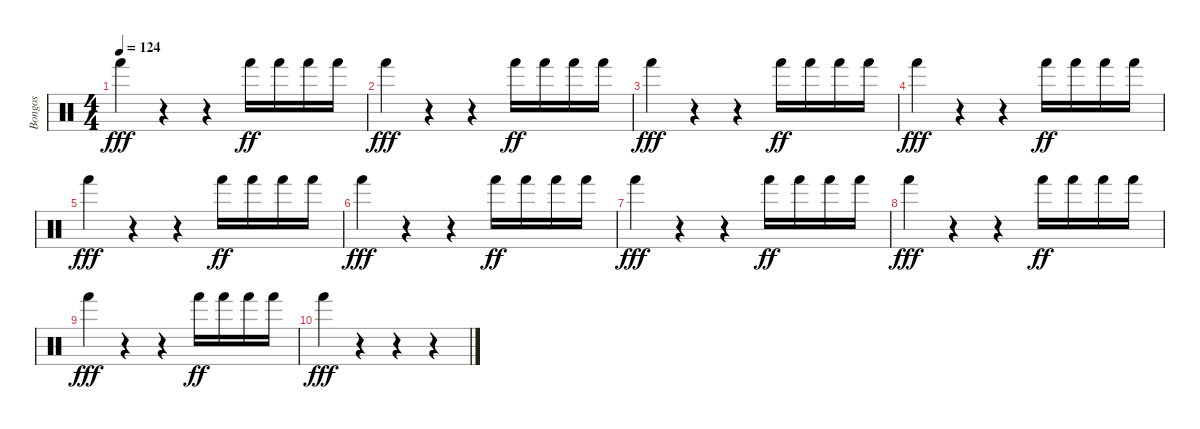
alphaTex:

\track ("Bongos" "Bongos") {instrument percussion}
\staff {score}
\articulation defaults
\ts (4 4)
\tempo 124
\clef neutral
\ks c "Hand (hit)".4{dy fff}
r.4 r.4 "Hand (hit)".16{dy ff} "Hand (hit)".16 "Hand (hit)".16 "Hand (hit)".16 |
"Hand (hit)".4{dy fff} r.4 r.4 "Hand (hit)".16{dy ff} "Hand (hit)".16 "Hand (hit)".16 "Hand (hit)".16 |
"Hand (hit)".4{dy fff} r.4 r.4 "Hand (hit)".16{dy ff} "Hand (hit)".16 "Hand (hit)".16 "Hand (hit)".16 |
"Hand (hit)".4{dy fff} r.4 r.4 "Hand (hit)".16{dy ff} "Hand (hit)".16 "Hand (hit)".16 "Hand (hit)".16 |
"Hand (hit)".4{dy fff} r.4 r.4 "Hand (hit)".16{dy ff} "Hand (hit)".16 "Hand (hit)".16 "Hand (hit)".16 |
"Hand (hit)".4{dy fff} r.4 r.4 "Hand (hit)".16{dy ff} "Hand (hit)".16 "Hand (hit)".16 "Hand (hit)".16 |
"Hand (hit)".4{dy fff} r.4 r.4 "Hand (hit)".16{dy ff} "Hand (hit)".16 "Hand (hit)".16 "Hand (hit)".16 |
"Hand (hit)".4{dy fff} r.4 r.4 "Hand (hit)".16{dy ff} "Hand (hit)".16 "Hand (hit)".16 "Hand (hit)".16 |
"Hand (hit)".4{dy fff} r.4 r.4 "Hand (hit)".16{dy ff} "Hand (hit)".16 "Hand (hit)".16 "Hand (hit)".16 |
"Hand (hit)".4{dy fff} r.4 r.4 r.4
